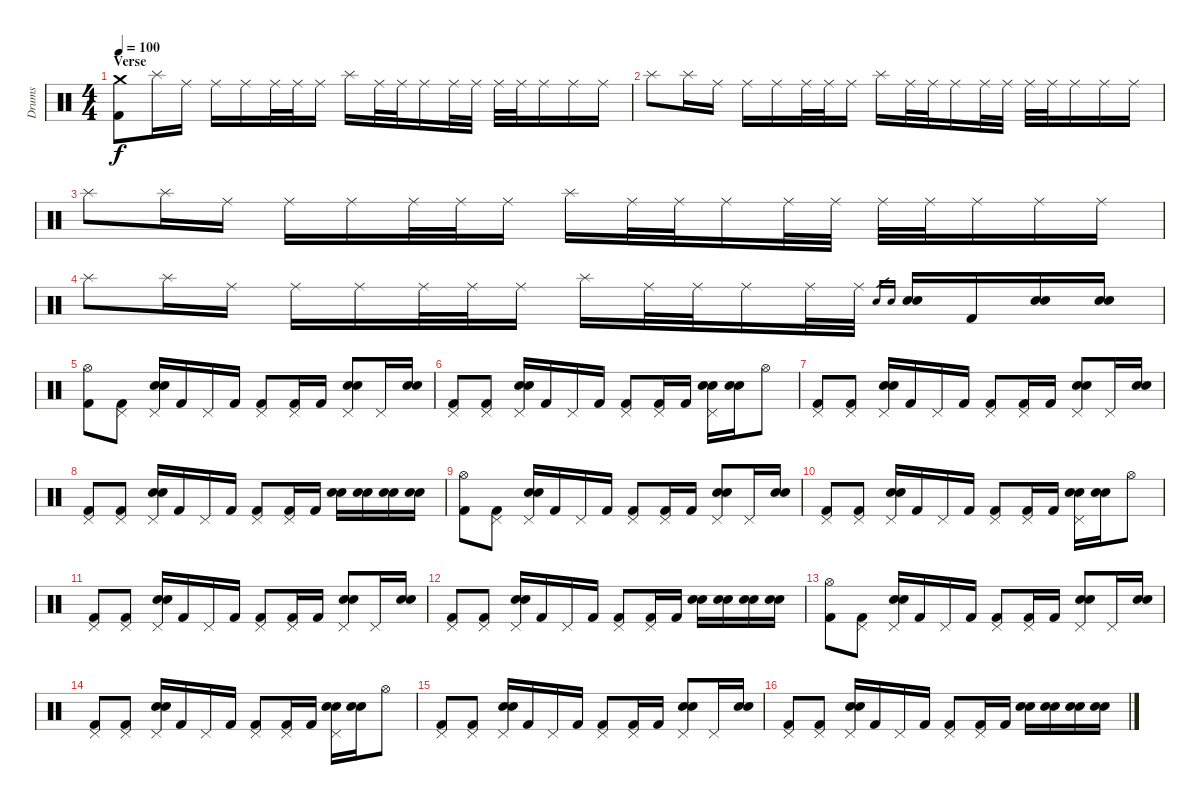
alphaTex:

\track ("Drums" "Drums") {instrument percussion}
\staff {score}
\articulation defaults
\ts (4 4)
\section ("" "Verse")
\tempo 100
\clef neutral
\ks c
("Crash medium (hit)" "Kick (hit) 2").8{dy f} "Splash (hit)".16 "Ride (middle)".16 "Ride (middle)".16 "Ride (middle)".16 "Ride (middle)".32 "Ride (middle)".32 "Ride (middle)".16 "Splash (hit)".16 "Ride (middle)".32 "Ride (middle)".32 "Ride (middle)".16 "Ride (middle)".32 "Ride (middle)".32 "Ride (middle)".32 "Ride (middle)".32 "Ride (middle)".16 "Ride (middle)".16 "Ride (middle)".16 |
"Splash (hit)".8 "Splash (hit)".16 "Ride (middle)".16 "Ride (middle)".16 "Ride (middle)".16 "Ride (middle)".32 "Ride (middle)".32 "Ride (middle)".16 "Splash (hit)".16 "Ride (middle)".32 "Ride (middle)".32 "Ride (middle)".16 "Ride (middle)".32 "Ride (middle)".32 "Ride (middle)".32 "Ride (middle)".32 "Ride (middle)".16 "Ride (middle)".16 "Ride (middle)".16 |
"Splash (hit)".8 "Splash (hit)".16 "Ride (middle)".16 "Ride (middle)".16 "Ride (middle)".16 "Ride (middle)".32 "Ride (middle)".32 "Ride (middle)".16 "Splash (hit)".16 "Ride (middle)".32 "Ride (middle)".32 "Ride (middle)".16 "Ride (middle)".32 "Ride (middle)".32 "Ride (middle)".32 "Ride (middle)".32 "Ride (middle)".16 "Ride (middle)".16 "Ride (middle)".16 |
"Splash (hit)".8 "Splash (hit)".16 "Ride (middle)".16 "Ride (middle)".16 "Ride (middle)".16 "Ride (middle)".32 "Ride (middle)".32 "Ride (middle)".16 "Splash (hit)".16 "Ride (middle)".32 "Ride (middle)".32 "Ride (middle)".16 "Ride (middle)".32 "Ride (middle)".32 "Snare (hit)".16{gr} "Snare (hit) 2".16{gr} ("Electric Snare (hit)" "Snare (hit) 2").16 "Kick (hit) 2".16 ("Electric Snare (hit)" "Snare (hit) 2").16 ("Electric Snare (hit)" "Snare (hit) 2").16 |
("Hi-Hat (open)" "Kick (hit) 2").8 ("Pedal Hi-Hat (hit)" "Kick (hit) 2").8 ("Pedal Hi-Hat (hit)" "Electric Snare (hit)" "Snare (hit) 2").16 "Kick (hit) 2".16 "Pedal Hi-Hat (hit)".16 "Kick (hit) 2".16 ("Pedal Hi-Hat (hit)" "Kick (hit) 2").8 ("Pedal Hi-Hat (hit)" "Kick (hit) 2").16 "Kick (hit) 2".16 ("Pedal Hi-Hat (hit)" "Electric Snare (hit)" "Snare (hit) 2").8 "Pedal Hi-Hat (hit)".16 ("Electric Snare (hit)" "Snare (hit) 2").16 |
("Pedal Hi-Hat (hit)" "Kick (hit) 2").8 ("Pedal Hi-Hat (hit)" "Kick (hit) 2").8 ("Pedal Hi-Hat (hit)" "Electric Snare (hit)" "Snare (hit) 2").16 "Kick (hit) 2".16 "Pedal Hi-Hat (hit)".16 "Kick (hit) 2".16 ("Pedal Hi-Hat (hit)" "Kick (hit) 2").8 ("Pedal Hi-Hat (hit)" "Kick (hit) 2").16 "Kick (hit) 2".16 ("Pedal Hi-Hat (hit)" "Electric Snare (hit)" "Snare (hit) 2").16 ("Electric Snare (hit)" "Snare (hit) 2").16 "Hi-Hat (open)".8 |
("Pedal Hi-Hat (hit)" "Kick (hit) 2").8 ("Pedal Hi-Hat (hit)" "Kick (hit) 2").8 ("Pedal Hi-Hat (hit)" "Electric Snare (hit)" "Snare (hit) 2").16 "Kick (hit) 2".16 "Pedal Hi-Hat (hit)".16 "Kick (hit) 2".16 ("Pedal Hi-Hat (hit)" "Kick (hit) 2").8 ("Pedal Hi-Hat (hit)" "Kick (hit) 2").16 "Kick (hit) 2".16 ("Pedal Hi-Hat (hit)" "Electric Snare (hit)" "Snare (hit) 2").8 "Pedal Hi-Hat (hit)".16 ("Electric Snare (hit)" "Snare (hit) 2").16 |
("Pedal Hi-Hat (hit)" "Kick (hit) 2").8 ("Pedal Hi-Hat (hit)" "Kick (hit) 2").8 ("Pedal Hi-Hat (hit)" "Electric Snare (hit)" "Snare (hit) 2").16 "Kick (hit) 2".16 "Pedal Hi-Hat (hit)".16 "Kick (hit) 2".16 ("Pedal Hi-Hat (hit)" "Kick (hit) 2").8 ("Pedal Hi-Hat (hit)" "Kick (hit) 2").16 "Kick (hit) 2".16 ("Electric Snare (hit)" "Snare (hit) 2").16 ("Electric Snare (hit)" "Snare (hit) 2").16 ("Electric Snare (hit)" "Snare (hit) 2").16 ("Electric Snare (hit)" "Snare (hit) 2").16 |
("Hi-Hat (open)" "Kick (hit) 2").8 ("Pedal Hi-Hat (hit)" "Kick (hit) 2").8 ("Pedal Hi-Hat (hit)" "Electric Snare (hit)" "Snare (hit) 2").16 "Kick (hit) 2".16 "Pedal Hi-Hat (hit)".16 "Kick (hit) 2".16 ("Pedal Hi-Hat (hit)" "Kick (hit) 2").8 ("Pedal Hi-Hat (hit)" "Kick (hit) 2").16 "Kick (hit) 2".16 ("Pedal Hi-Hat (hit)" "Electric Snare (hit)" "Snare (hit) 2").8 "Pedal Hi-Hat (hit)".16 ("Electric Snare (hit)" "Snare (hit) 2").16 |
("Pedal Hi-Hat (hit)" "Kick (hit) 2").8 ("Pedal Hi-Hat (hit)" "Kick (hit) 2").8 ("Pedal Hi-Hat (hit)" "Electric Snare (hit)" "Snare (hit) 2").16 "Kick (hit) 2".16 "Pedal Hi-Hat (hit)".16 "Kick (hit) 2".16 ("Pedal Hi-Hat (hit)" "Kick (hit) 2").8 ("Pedal Hi-Hat (hit)" "Kick (hit) 2").16 "Kick (hit) 2".16 ("Pedal Hi-Hat (hit)" "Electric Snare (hit)" "Snare (hit) 2").16 ("Electric Snare (hit)" "Snare (hit) 2").16 "Hi-Hat (open)".8 |
("Pedal Hi-Hat (hit)" "Kick (hit) 2").8 ("Pedal Hi-Hat (hit)" "Kick (hit) 2").8 ("Pedal Hi-Hat (hit)" "Electric Snare (hit)" "Snare (hit) 2").16 "Kick (hit) 2".16 "Pedal Hi-Hat (hit)".16 "Kick (hit) 2".16 ("Pedal Hi-Hat (hit)" "Kick (hit) 2").8 ("Pedal Hi-Hat (hit)" "Kick (hit) 2").16 "Kick (hit) 2".16 ("Pedal Hi-Hat (hit)" "Electric Snare (hit)" "Snare (hit) 2").8 "Pedal Hi-Hat (hit)".16 ("Electric Snare (hit)" "Snare (hit) 2").16 |
("Pedal Hi-Hat (hit)" "Kick (hit) 2").8 ("Pedal Hi-Hat (hit)" "Kick (hit) 2").8 ("Pedal Hi-Hat (hit)" "Electric Snare (hit)" "Snare (hit) 2").16 "Kick (hit) 2".16 "Pedal Hi-Hat (hit)".16 "Kick (hit) 2".16 ("Pedal Hi-Hat (hit)" "Kick (hit) 2").8 ("Pedal Hi-Hat (hit)" "Kick (hit) 2").16 "Kick (hit) 2".16 ("Electric Snare (hit)" "Snare (hit) 2").16 ("Electric Snare (hit)" "Snare (hit) 2").16 ("Electric Snare (hit)" "Snare (hit) 2").16 ("Electric Snare (hit)" "Snare (hit) 2").16 |
("Hi-Hat (open)" "Kick (hit) 2").8 ("Pedal Hi-Hat (hit)" "Kick (hit) 2").8 ("Pedal Hi-Hat (hit)" "Electric Snare (hit)" "Snare (hit) 2").16 "Kick (hit) 2".16 "Pedal Hi-Hat (hit)".16 "Kick (hit) 2".16 ("Pedal Hi-Hat (hit)" "Kick (hit) 2").8 ("Pedal Hi-Hat (hit)" "Kick (hit) 2").16 "Kick (hit) 2".16 ("Pedal Hi-Hat (hit)" "Electric Snare (hit)" "Snare (hit) 2").8 "Pedal Hi-Hat (hit)".16 ("Electric Snare (hit)" "Snare (hit) 2").16 |
("Pedal Hi-Hat (hit)" "Kick (hit) 2").8 ("Pedal Hi-Hat (hit)" "Kick (hit) 2").8 ("Pedal Hi-Hat (hit)" "Electric Snare (hit)" "Snare (hit) 2").16 "Kick (hit) 2".16 "Pedal Hi-Hat (hit)".16 "Kick (hit) 2".16 ("Pedal Hi-Hat (hit)" "Kick (hit) 2").8 ("Pedal Hi-Hat (hit)" "Kick (hit) 2").16 "Kick (hit) 2".16 ("Pedal Hi-Hat (hit)" "Electric Snare (hit)" "Snare (hit) 2").16 ("Electric Snare (hit)" "Snare (hit) 2").16 "Hi-Hat (open)".8 |
("Pedal Hi-Hat (hit)" "Kick (hit) 2").8 ("Pedal Hi-Hat (hit)" "Kick (hit) 2").8 ("Pedal Hi-Hat (hit)" "Electric Snare (hit)" "Snare (hit) 2").16 "Kick (hit) 2".16 "Pedal Hi-Hat (hit)".16 "Kick (hit) 2".16 ("Pedal Hi-Hat (hit)" "Kick (hit) 2").8 ("Pedal Hi-Hat (hit)" "Kick (hit) 2").16 "Kick (hit) 2".16 ("Pedal Hi-Hat (hit)" "Electric Snare (hit)" "Snare (hit) 2").8 "Pedal Hi-Hat (hit)".16 ("Electric Snare (hit)" "Snare (hit) 2").16 |
("Pedal Hi-Hat (hit)" "Kick (hit) 2").8 ("Pedal Hi-Hat (hit)" "Kick (hit) 2").8 ("Pedal Hi-Hat (hit)" "Electric Snare (hit)" "Snare (hit) 2").16 "Kick (hit) 2".16 "Pedal Hi-Hat (hit)".16 "Kick (hit) 2".16 ("Pedal Hi-Hat (hit)" "Kick (hit) 2").8 ("Pedal Hi-Hat (hit)" "Kick (hit) 2").16 "Kick (hit) 2".16 ("Electric Snare (hit)" "Snare (hit) 2").16 ("Electric Snare (hit)" "Snare (hit) 2").16 ("Electric Snare (hit)" "Snare (hit) 2").16 ("Electric Snare (hit)" "Snare (hit) 2").16
